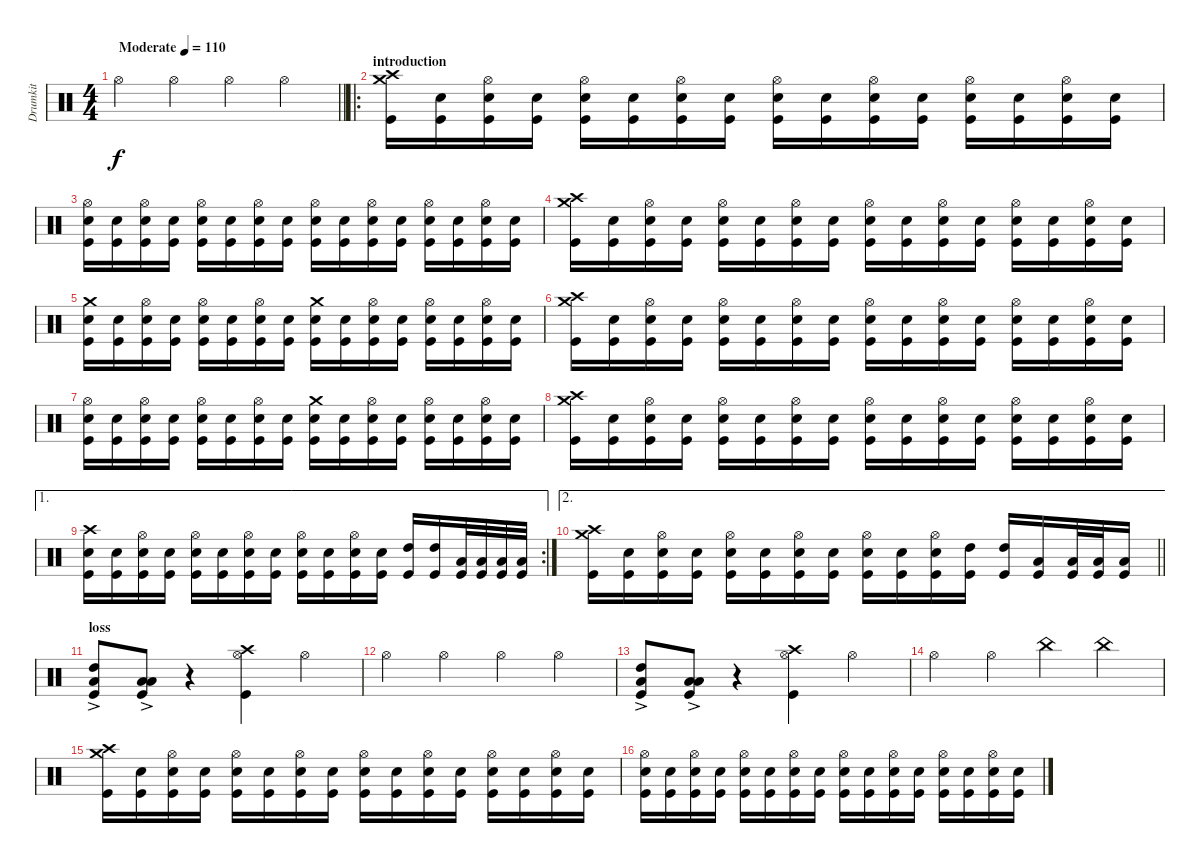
\track ("Drumkit" "Drumkit") {instrument percussion}
\staff {score}
\articulation defaults
\ts (4 4)
\tempo (110 "Moderate")
\clef neutral
\barLineRight lightlight
\ks c "Hi-Hat (open)".4{dy f} "Hi-Hat (open)".4 "Hi-Hat (open)".4 "Hi-Hat (open)".4
|
\ro
\section ("" "introduction")
("Crash high (hit)" "Crash medium (hit)" "Kick (hit)").16 ("Snare (hit) 2" "Kick (hit)").16 ("Hi-Hat (open)" "Snare (hit) 2" "Kick (hit)").16 ("Snare (hit) 2" "Kick (hit)").16 ("Hi-Hat (open)" "Snare (hit) 2" "Kick (hit)").16 ("Snare (hit) 2" "Kick (hit)").16 ("Hi-Hat (open)" "Snare (hit) 2" "Kick (hit)").16 ("Snare (hit) 2" "Kick (hit)").16 ("Hi-Hat (open)" "Snare (hit) 2" "Kick (hit)").16 ("Snare (hit) 2" "Kick (hit)").16 ("Hi-Hat (open)" "Snare (hit) 2" "Kick (hit)").16 ("Snare (hit) 2" "Kick (hit)").16 ("Hi-Hat (open)" "Snare (hit) 2" "Kick (hit)").16 ("Snare (hit) 2" "Kick (hit)").16 ("Hi-Hat (open)" "Snare (hit) 2" "Kick (hit)").16 ("Snare (hit) 2" "Kick (hit)").16 |
("Hi-Hat (open)" "Snare (hit) 2" "Kick (hit)").16 ("Snare (hit) 2" "Kick (hit)").16 ("Hi-Hat (open)" "Snare (hit) 2" "Kick (hit)").16 ("Snare (hit) 2" "Kick (hit)").16 ("Hi-Hat (open)" "Snare (hit) 2" "Kick (hit)").16 ("Snare (hit) 2" "Kick (hit)").16 ("Hi-Hat (open)" "Snare (hit) 2" "Kick (hit)").16 ("Snare (hit) 2" "Kick (hit)").16 ("Hi-Hat (open)" "Snare (hit) 2" "Kick (hit)").16 ("Snare (hit) 2" "Kick (hit)").16 ("Hi-Hat (open)" "Snare (hit) 2" "Kick (hit)").16 ("Snare (hit) 2" "Kick (hit)").16 ("Hi-Hat (open)" "Snare (hit) 2" "Kick (hit)").16 ("Snare (hit) 2" "Kick (hit)").16 ("Hi-Hat (open)" "Snare (hit) 2" "Kick (hit)").16 ("Snare (hit) 2" "Kick (hit)").16 |
("Crash high (hit)" "Crash medium (hit)" "Kick (hit)").16 ("Snare (hit) 2" "Kick (hit)").16 ("Hi-Hat (open)" "Snare (hit) 2" "Kick (hit)").16 ("Snare (hit) 2" "Kick (hit)").16 ("Hi-Hat (open)" "Snare (hit) 2" "Kick (hit)").16 ("Snare (hit) 2" "Kick (hit)").16 ("Hi-Hat (open)" "Snare (hit) 2" "Kick (hit)").16 ("Snare (hit) 2" "Kick (hit)").16 ("Hi-Hat (open)" "Snare (hit) 2" "Kick (hit)").16 ("Snare (hit) 2" "Kick (hit)").16 ("Hi-Hat (open)" "Snare (hit) 2" "Kick (hit)").16 ("Snare (hit) 2" "Kick (hit)").16 ("Hi-Hat (open)" "Snare (hit) 2" "Kick (hit)").16 ("Snare (hit) 2" "Kick (hit)").16 ("Hi-Hat (open)" "Snare (hit) 2" "Kick (hit)").16 ("Snare (hit) 2" "Kick (hit)").16 |
("Crash medium (hit)" "Snare (hit) 2" "Kick (hit)").16 ("Snare (hit) 2" "Kick (hit)").16 ("Hi-Hat (open)" "Snare (hit) 2" "Kick (hit)").16 ("Snare (hit) 2" "Kick (hit)").16 ("Hi-Hat (open)" "Snare (hit) 2" "Kick (hit)").16 ("Snare (hit) 2" "Kick (hit)").16 ("Hi-Hat (open)" "Snare (hit) 2" "Kick (hit)").16 ("Snare (hit) 2" "Kick (hit)").16 ("Crash medium (hit)" "Snare (hit) 2" "Kick (hit)").16 ("Snare (hit) 2" "Kick (hit)").16 ("Hi-Hat (open)" "Snare (hit) 2" "Kick (hit)").16 ("Snare (hit) 2" "Kick (hit)").16 ("Hi-Hat (open)" "Snare (hit) 2" "Kick (hit)").16 ("Snare (hit) 2" "Kick (hit)").16 ("Hi-Hat (open)" "Snare (hit) 2" "Kick (hit)").16 ("Snare (hit) 2" "Kick (hit)").16 |
("Crash high (hit)" "Crash medium (hit)" "Kick (hit)").16 ("Snare (hit) 2" "Kick (hit)").16 ("Hi-Hat (open)" "Snare (hit) 2" "Kick (hit)").16 ("Snare (hit) 2" "Kick (hit)").16 ("Hi-Hat (open)" "Snare (hit) 2" "Kick (hit)").16 ("Snare (hit) 2" "Kick (hit)").16 ("Hi-Hat (open)" "Snare (hit) 2" "Kick (hit)").16 ("Snare (hit) 2" "Kick (hit)").16 ("Hi-Hat (open)" "Snare (hit) 2" "Kick (hit)").16 ("Snare (hit) 2" "Kick (hit)").16 ("Hi-Hat (open)" "Snare (hit) 2" "Kick (hit)").16 ("Snare (hit) 2" "Kick (hit)").16 ("Hi-Hat (open)" "Snare (hit) 2" "Kick (hit)").16 ("Snare (hit) 2" "Kick (hit)").16 ("Hi-Hat (open)" "Snare (hit) 2" "Kick (hit)").16 ("Snare (hit) 2" "Kick (hit)").16 |
("Hi-Hat (open)" "Snare (hit) 2" "Kick (hit)").16 ("Snare (hit) 2" "Kick (hit)").16 ("Hi-Hat (open)" "Snare (hit) 2" "Kick (hit)").16 ("Snare (hit) 2" "Kick (hit)").16 ("Hi-Hat (open)" "Snare (hit) 2" "Kick (hit)").16 ("Snare (hit) 2" "Kick (hit)").16 ("Hi-Hat (open)" "Snare (hit) 2" "Kick (hit)").16 ("Snare (hit) 2" "Kick (hit)").16 ("Crash medium (hit)" "Snare (hit) 2" "Kick (hit)").16 ("Snare (hit) 2" "Kick (hit)").16 ("Hi-Hat (open)" "Snare (hit) 2" "Kick (hit)").16 ("Snare (hit) 2" "Kick (hit)").16 ("Hi-Hat (open)" "Snare (hit) 2" "Kick (hit)").16 ("Snare (hit) 2" "Kick (hit)").16 ("Hi-Hat (open)" "Snare (hit) 2" "Kick (hit)").16 ("Snare (hit) 2" "Kick (hit)").16 |
("Crash high (hit)" "Crash medium (hit)" "Kick (hit)").16 ("Snare (hit) 2" "Kick (hit)").16 ("Hi-Hat (open)" "Snare (hit) 2" "Kick (hit)").16 ("Snare (hit) 2" "Kick (hit)").16 ("Hi-Hat (open)" "Snare (hit) 2" "Kick (hit)").16 ("Snare (hit) 2" "Kick (hit)").16 ("Hi-Hat (open)" "Snare (hit) 2" "Kick (hit)").16 ("Snare (hit) 2" "Kick (hit)").16 ("Hi-Hat (open)" "Snare (hit) 2" "Kick (hit)").16 ("Snare (hit) 2" "Kick (hit)").16 ("Hi-Hat (open)" "Snare (hit) 2" "Kick (hit)").16 ("Snare (hit) 2" "Kick (hit)").16 ("Hi-Hat (open)" "Snare (hit) 2" "Kick (hit)").16 ("Snare (hit) 2" "Kick (hit)").16 ("Hi-Hat (open)" "Snare (hit) 2" "Kick (hit)").16 ("Snare (hit) 2" "Kick (hit)").16 |
\ae 1
\rc 2
("Crash high (hit)" "Snare (hit) 2" "Kick (hit)").16 ("Snare (hit) 2" "Kick (hit)").16 ("Hi-Hat (open)" "Snare (hit) 2" "Kick (hit)").16 ("Snare (hit) 2" "Kick (hit)").16 ("Hi-Hat (open)" "Snare (hit) 2" "Kick (hit)").16 ("Snare (hit) 2" "Kick (hit)").16 ("Hi-Hat (open)" "Snare (hit) 2" "Kick (hit)").16 ("Snare (hit) 2" "Kick (hit)").16 ("Hi-Hat (open)" "Snare (hit) 2" "Kick (hit)").16 ("Snare (hit) 2" "Kick (hit)").16 ("Hi-Hat (open)" "Snare (hit) 2" "Kick (hit)").16 ("Snare (hit) 2" "Kick (hit)").16 ("High Tom (hit)" "Kick (hit)").16 ("High Tom (hit)" "Kick (hit)").16 ("Low Tom (hit)" "Kick (hit)").32 ("Low Tom (hit)" "Kick (hit)").32 ("Low Floor Tom (hit)" "Kick (hit)").32 ("Low Floor Tom (hit)" "Kick (hit)").32 |
\ae 2
\barLineRight lightlight
("Crash high (hit)" "Crash medium (hit)" "Kick (hit)").16 ("Snare (hit) 2" "Kick (hit)").16 ("Hi-Hat (open)" "Snare (hit) 2" "Kick (hit)").16 ("Snare (hit) 2" "Kick (hit)").16 ("Hi-Hat (open)" "Snare (hit) 2" "Kick (hit)").16 ("Snare (hit) 2" "Kick (hit)").16 ("Hi-Hat (open)" "Snare (hit) 2" "Kick (hit)").16 ("Snare (hit) 2" "Kick (hit)").16 ("Hi-Hat (open)" "Snare (hit) 2" "Kick (hit)").16 ("Snare (hit) 2" "Kick (hit)").16 ("Hi-Hat (open)" "Snare (hit) 2" "Kick (hit)").16 ("High Tom (hit)" "Kick (hit)").16 ("High Tom (hit)" "Kick (hit)").16 ("Low Tom (hit)" "Kick (hit)").16 ("Low Tom (hit)" "Kick (hit)").32 ("Low Tom (hit)" "Kick (hit)").32 ("Low Tom (hit)" "Kick (hit)").16 |
\section ("" "loss")
("High Tom (hit)"{ac} "Low Floor Tom (hit)"{ac} "Kick (hit)").8 ("Low Tom (hit)"{ac} "Low Floor Tom (hit)"{ac} "Kick (hit)").8 r.4 ("Crash high (hit)" "Hi-Hat (open)" "Kick (hit)").4 "Hi-Hat (open)".4 |
"Hi-Hat (open)".4 "Hi-Hat (open)".4 "Hi-Hat (open)".4 "Hi-Hat (open)".4 |
("High Tom (hit)"{ac} "Low Floor Tom (hit)"{ac} "Kick (hit)").8 ("Low Tom (hit)"{ac} "Low Floor Tom (hit)"{ac} "Kick (hit)").8 r.4 ("Crash high (hit)" "Hi-Hat (open)" "Kick (hit)").4 "Hi-Hat (open)".4 |
"Hi-Hat (open)".4 "Hi-Hat (open)".4 "China (hit)".4 "China (hit)".4 |
("Crash high (hit)" "Crash medium (hit)" "Kick (hit)").16 ("Snare (hit) 2" "Kick (hit)").16 ("Hi-Hat (open)" "Snare (hit) 2" "Kick (hit)").16 ("Snare (hit) 2" "Kick (hit)").16 ("Hi-Hat (open)" "Snare (hit) 2" "Kick (hit)").16 ("Snare (hit) 2" "Kick (hit)").16 ("Hi-Hat (open)" "Snare (hit) 2" "Kick (hit)").16 ("Snare (hit) 2" "Kick (hit)").16 ("Hi-Hat (open)" "Snare (hit) 2" "Kick (hit)").16 ("Snare (hit) 2" "Kick (hit)").16 ("Hi-Hat (open)" "Snare (hit) 2" "Kick (hit)").16 ("Snare (hit) 2" "Kick (hit)").16 ("Hi-Hat (open)" "Snare (hit) 2" "Kick (hit)").16 ("Snare (hit) 2" "Kick (hit)").16 ("Hi-Hat (open)" "Snare (hit) 2" "Kick (hit)").16 ("Snare (hit) 2" "Kick (hit)").16 |
("Hi-Hat (open)" "Snare (hit) 2" "Kick (hit)").16 ("Snare (hit) 2" "Kick (hit)").16 ("Hi-Hat (open)" "Snare (hit) 2" "Kick (hit)").16 ("Snare (hit) 2" "Kick (hit)").16 ("Hi-Hat (open)" "Snare (hit) 2" "Kick (hit)").16 ("Snare (hit) 2" "Kick (hit)").16 ("Hi-Hat (open)" "Snare (hit) 2" "Kick (hit)").16 ("Snare (hit) 2" "Kick (hit)").16 ("Hi-Hat (open)" "Snare (hit) 2" "Kick (hit)").16 ("Snare (hit) 2" "Kick (hit)").16 ("Hi-Hat (open)" "Snare (hit) 2" "Kick (hit)").16 ("Snare (hit) 2" "Kick (hit)").16 ("Hi-Hat (open)" "Snare (hit) 2" "Kick (hit)").16 ("Snare (hit) 2" "Kick (hit)").16 ("Hi-Hat (open)" "Snare (hit) 2" "Kick (hit)").16 ("Snare (hit) 2" "Kick (hit)").16
